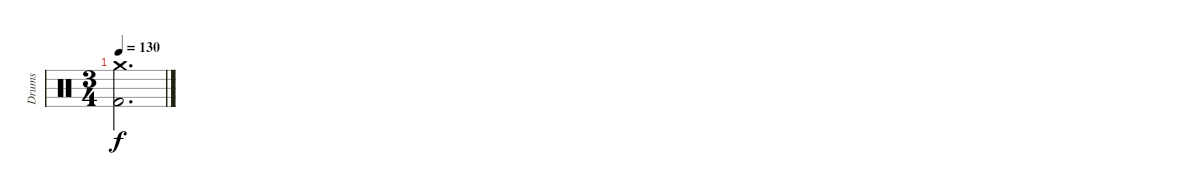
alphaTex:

\track ("Drums" "Drums") {instrument percussion}
\staff {score}
\articulation defaults
\ts (3 4)
\tempo 130
\clef neutral
\ks c
("Crash medium (hit)" "Kick (hit) 2").2{d dy f}
